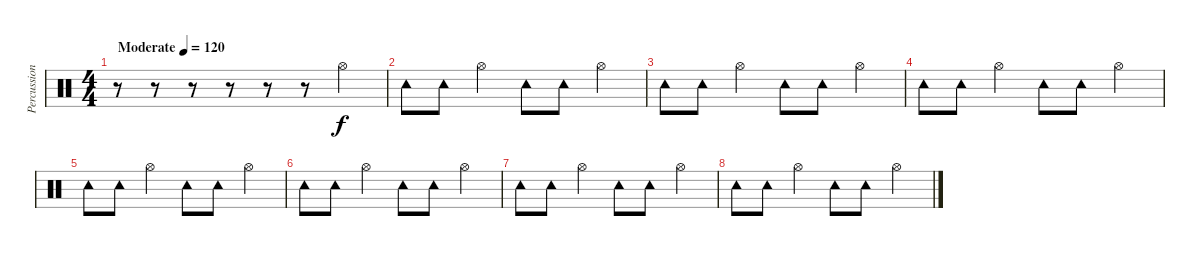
\track ("Percussion" "Percussion") {instrument percussion}
\staff {score}
\articulation defaults
\ts (4 4)
\tempo (120 "Moderate")
\clef neutral
\ks c
r.8{dy f} r.8 r.8 r.8 r.8 r.8 "Hi-Hat (open)".4 |
"Tambourine (hit)".8 "Tambourine (hit)".8 "Hi-Hat (open)".4 "Tambourine (hit)".8 "Tambourine (hit)".8 "Hi-Hat (open)".4 |
"Tambourine (hit)".8 "Tambourine (hit)".8 "Hi-Hat (open)".4 "Tambourine (hit)".8 "Tambourine (hit)".8 "Hi-Hat (open)".4 |
"Tambourine (hit)".8 "Tambourine (hit)".8 "Hi-Hat (open)".4 "Tambourine (hit)".8 "Tambourine (hit)".8 "Hi-Hat (open)".4 |
"Tambourine (hit)".8 "Tambourine (hit)".8 "Hi-Hat (open)".4 "Tambourine (hit)".8 "Tambourine (hit)".8 "Hi-Hat (open)".4 |
"Tambourine (hit)".8 "Tambourine (hit)".8 "Hi-Hat (open)".4 "Tambourine (hit)".8 "Tambourine (hit)".8 "Hi-Hat (open)".4 |
"Tambourine (hit)".8 "Tambourine (hit)".8 "Hi-Hat (open)".4 "Tambourine (hit)".8 "Tambourine (hit)".8 "Hi-Hat (open)".4 |
"Tambourine (hit)".8 "Tambourine (hit)".8 "Hi-Hat (open)".4 "Tambourine (hit)".8 "Tambourine (hit)".8 "Hi-Hat (open)".4
